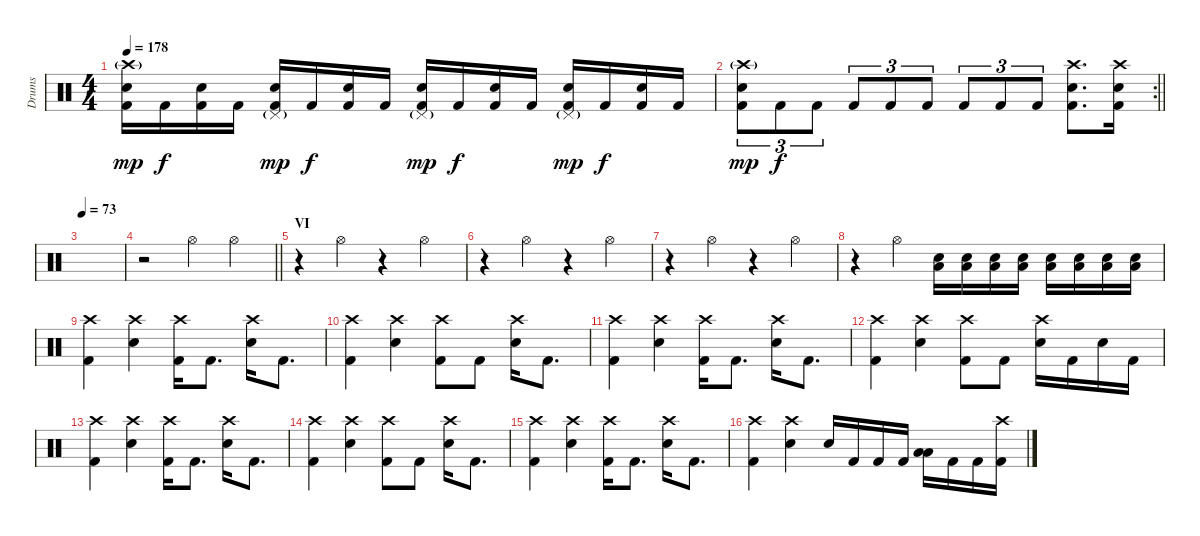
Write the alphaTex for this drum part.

\track ("Drums" "Drums") {instrument percussion}
\staff {score}
\articulation defaults
\ts (4 4)
\tempo 178
\clef neutral
\ks c
("Crash high (hit)"{g} "Electric Snare (hit)" "Kick (hit) 2").16{dy mp} "Kick (hit) 2".16{dy f} ("Electric Snare (hit)" "Kick (hit) 2").16 "Kick (hit) 2".16 ("Pedal Hi-Hat (hit)"{g} "Electric Snare (hit)" "Kick (hit) 2").16{dy mp} "Kick (hit) 2".16{dy f} ("Electric Snare (hit)" "Kick (hit) 2").16 "Kick (hit) 2".16 ("Pedal Hi-Hat (hit)"{g} "Electric Snare (hit)" "Kick (hit) 2").16{dy mp} "Kick (hit) 2".16{dy f} ("Electric Snare (hit)" "Kick (hit) 2").16 "Kick (hit) 2".16 ("Pedal Hi-Hat (hit)"{g} "Electric Snare (hit)" "Kick (hit) 2").16{dy mp} "Kick (hit) 2".16{dy f} ("Electric Snare (hit)" "Kick (hit) 2").16 "Kick (hit) 2".16 |
\rc 2
\barLineRight lightlight
("Crash high (hit)"{g} "Electric Snare (hit)" "Kick (hit) 2").8{tu (3 2) dy mp} "Kick (hit) 2".8{tu (3 2) dy f} "Kick (hit) 2".8{tu (3 2)} "Kick (hit) 2".8{tu (3 2)} "Kick (hit) 2".8{tu (3 2)} "Kick (hit) 2".8{tu (3 2)} "Kick (hit) 2".8{tu (3 2)} "Kick (hit) 2".8{tu (3 2)} "Kick (hit) 2".8{tu (3 2)} ("Crash high (hit)" "Electric Snare (hit)" "Kick (hit) 2").8{d} ("Crash high (hit)" "Electric Snare (hit)" "Kick (hit) 2").16 |
\tempo 73
|
\barLineRight lightlight
r.2 "Hi-Hat (open)".4 "Hi-Hat (open)".4 |
\section ("" "VI")
r.4 "Hi-Hat (open)".4 r.4 "Hi-Hat (open)".4 |
r.4 "Hi-Hat (open)".4 r.4 "Hi-Hat (open)".4 |
r.4 "Hi-Hat (open)".4 r.4 "Hi-Hat (open)".4 |
r.4 "Hi-Hat (open)".4 ("Electric Snare (hit)" "Low Tom (hit)").16 ("Electric Snare (hit)" "Low Tom (hit)").16 ("Electric Snare (hit)" "Low Tom (hit)").16 ("Electric Snare (hit)" "Low Tom (hit)").16 ("Electric Snare (hit)" "Low Floor Tom (hit)").16 ("Electric Snare (hit)" "Low Floor Tom (hit)").16 ("Electric Snare (hit)" "Low Floor Tom (hit)").16 ("Electric Snare (hit)" "Low Floor Tom (hit)").16 |
("Crash high (hit)" "Kick (hit) 2").4 ("Crash high (hit)" "Snare (hit) 2").4 ("Crash high (hit)" "Kick (hit) 2").16 "Kick (hit) 2".8{d} ("Crash high (hit)" "Snare (hit) 2").16 "Kick (hit) 2".8{d} |
("Crash high (hit)" "Kick (hit) 2").4 ("Crash high (hit)" "Snare (hit) 2").4 ("Crash high (hit)" "Kick (hit) 2").8 "Kick (hit) 2".8 ("Crash high (hit)" "Snare (hit) 2").16 "Kick (hit) 2".8{d} |
("Crash high (hit)" "Kick (hit) 2").4 ("Crash high (hit)" "Snare (hit) 2").4 ("Crash high (hit)" "Kick (hit) 2").16 "Kick (hit) 2".8{d} ("Crash high (hit)" "Snare (hit) 2").16 "Kick (hit) 2".8{d} |
("Crash high (hit)" "Kick (hit) 2").4 ("Crash high (hit)" "Snare (hit) 2").4 ("Crash high (hit)" "Kick (hit) 2").8 "Kick (hit) 2".8 ("Crash high (hit)" "Snare (hit) 2").16 "Kick (hit) 2".16 "Snare (hit) 2".16 "Kick (hit) 2".16 |
("Crash high (hit)" "Kick (hit) 2").4 ("Crash high (hit)" "Snare (hit) 2").4 ("Crash high (hit)" "Kick (hit) 2").16 "Kick (hit) 2".8{d} ("Crash high (hit)" "Snare (hit) 2").16 "Kick (hit) 2".8{d} |
("Crash high (hit)" "Kick (hit) 2").4 ("Crash high (hit)" "Snare (hit) 2").4 ("Crash high (hit)" "Kick (hit) 2").8 "Kick (hit) 2".8 ("Crash high (hit)" "Snare (hit) 2").16 "Kick (hit) 2".8{d} |
("Crash high (hit)" "Kick (hit) 2").4 ("Crash high (hit)" "Snare (hit) 2").4 ("Crash high (hit)" "Kick (hit) 2").16 "Kick (hit) 2".8{d} ("Crash high (hit)" "Snare (hit) 2").16 "Kick (hit) 2".8{d} |
("Crash high (hit)" "Kick (hit) 2").4 ("Crash high (hit)" "Snare (hit) 2").4 "Snare (hit) 2".16 "Kick (hit) 2".16 "Kick (hit) 2".16 "Kick (hit) 2".16 ("Low Tom (hit)" "Low Floor Tom (hit)").16 "Kick (hit) 2".16 "Kick (hit) 2".16 ("Crash high (hit)" "Kick (hit) 2").16
